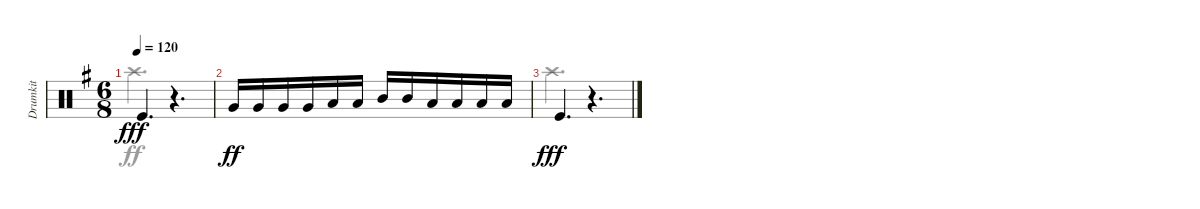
\track ("Drumkit" "Drumkit") {instrument percussion}
\staff {score}
\articulation defaults
\voice
\ts (6 8)
\tempo 120
\clef neutral
\ks eminor "Kick (hit)".4{d dy fff}
r.4{d} |
"Very Low Tom (hit)".16{dy ff} "Very Low Tom (hit)".16 "Very Low Tom (hit)".16 "Very Low Tom (hit)".16 "Low Tom (hit)".16 "Low Tom (hit)".16 "Mid Tom (hit)".16 "Mid Tom (hit)".16 "Low Tom (hit)".16 "Low Tom (hit)".16 "Low Floor Tom (hit)".16 "Low Floor Tom (hit)".16 |
"Kick (hit)".4{d dy fff} r.4{d}
\voice
\clef neutral
\ottava regular
\simile none
\ks eminor "Crash high (hit)".4{d dy ff}
r.4{d} |
|
"Crash high (hit)".4{d dy fff} r.4{d}
